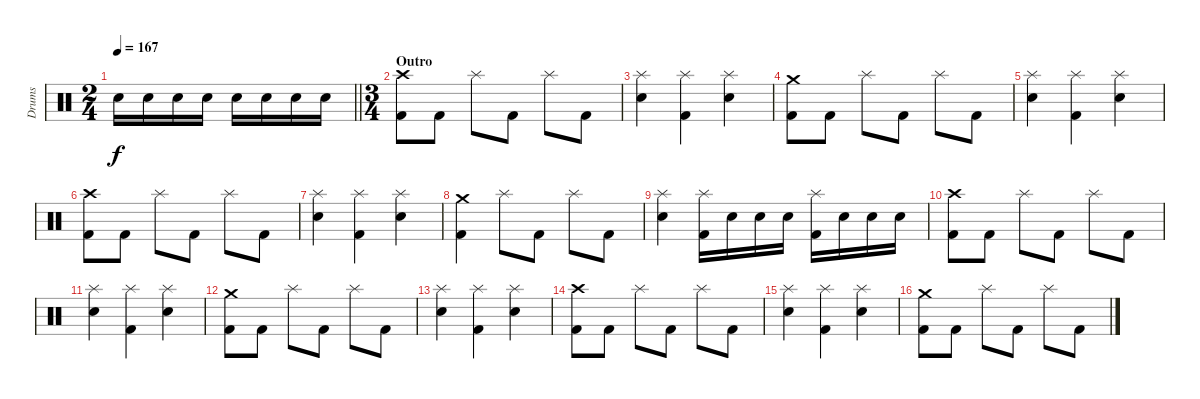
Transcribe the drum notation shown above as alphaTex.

\track ("Drums" "Drums") {instrument percussion}
\staff {score}
\articulation defaults
\ts (2 4)
\tempo 167
\clef neutral
\barLineRight lightlight
\ks c "Snare (hit) 2".16{dy f} "Snare (hit) 2".16 "Snare (hit) 2".16 "Snare (hit) 2".16 "Snare (hit) 2".16 "Snare (hit) 2".16 "Snare (hit) 2".16 "Snare (hit) 2".16
|
\ts (3 4)
\section ("" "Outro")
("Crash high (hit)" "Kick (hit) 2").8 "Kick (hit) 2".8 "Splash (hit)".8 "Kick (hit) 2".8 "Splash (hit)".8 "Kick (hit) 2".8 |
("Splash (hit)" "Snare (hit) 2").4 ("Splash (hit)" "Kick (hit) 2").4 ("Splash (hit)" "Snare (hit) 2").4 |
("Crash medium (hit)" "Kick (hit) 2").8 "Kick (hit) 2".8 "Splash (hit)".8 "Kick (hit) 2".8 "Splash (hit)".8 "Kick (hit) 2".8 |
("Splash (hit)" "Snare (hit) 2").4 ("Splash (hit)" "Kick (hit) 2").4 ("Splash (hit)" "Snare (hit) 2").4 |
("Crash high (hit)" "Kick (hit) 2").8 "Kick (hit) 2".8 "Splash (hit)".8 "Kick (hit) 2".8 "Splash (hit)".8 "Kick (hit) 2".8 |
("Splash (hit)" "Snare (hit) 2").4 ("Splash (hit)" "Kick (hit) 2").4 ("Splash (hit)" "Snare (hit) 2").4 |
("Crash medium (hit)" "Kick (hit) 2").4 "Splash (hit)".8 "Kick (hit) 2".8 "Splash (hit)".8 "Kick (hit) 2".8 |
("Splash (hit)" "Snare (hit) 2").4 ("Splash (hit)" "Kick (hit) 2").16 "Snare (hit) 2".16 "Snare (hit) 2".16 "Snare (hit) 2".16 ("Splash (hit)" "Kick (hit) 2").16 "Snare (hit) 2".16 "Snare (hit) 2".16 "Snare (hit) 2".16 |
("Crash high (hit)" "Kick (hit) 2").8 "Kick (hit) 2".8 "Splash (hit)".8 "Kick (hit) 2".8 "Splash (hit)".8 "Kick (hit) 2".8 |
("Splash (hit)" "Snare (hit) 2").4 ("Splash (hit)" "Kick (hit) 2").4 ("Splash (hit)" "Snare (hit) 2").4 |
("Crash medium (hit)" "Kick (hit) 2").8 "Kick (hit) 2".8 "Splash (hit)".8 "Kick (hit) 2".8 "Splash (hit)".8 "Kick (hit) 2".8 |
("Splash (hit)" "Snare (hit) 2").4 ("Splash (hit)" "Kick (hit) 2").4 ("Splash (hit)" "Snare (hit) 2").4 |
("Crash high (hit)" "Kick (hit) 2").8 "Kick (hit) 2".8 "Splash (hit)".8 "Kick (hit) 2".8 "Splash (hit)".8 "Kick (hit) 2".8 |
("Splash (hit)" "Snare (hit) 2").4 ("Splash (hit)" "Kick (hit) 2").4 ("Splash (hit)" "Snare (hit) 2").4 |
("Crash medium (hit)" "Kick (hit) 2").8 "Kick (hit) 2".8 "Splash (hit)".8 "Kick (hit) 2".8 "Splash (hit)".8 "Kick (hit) 2".8
